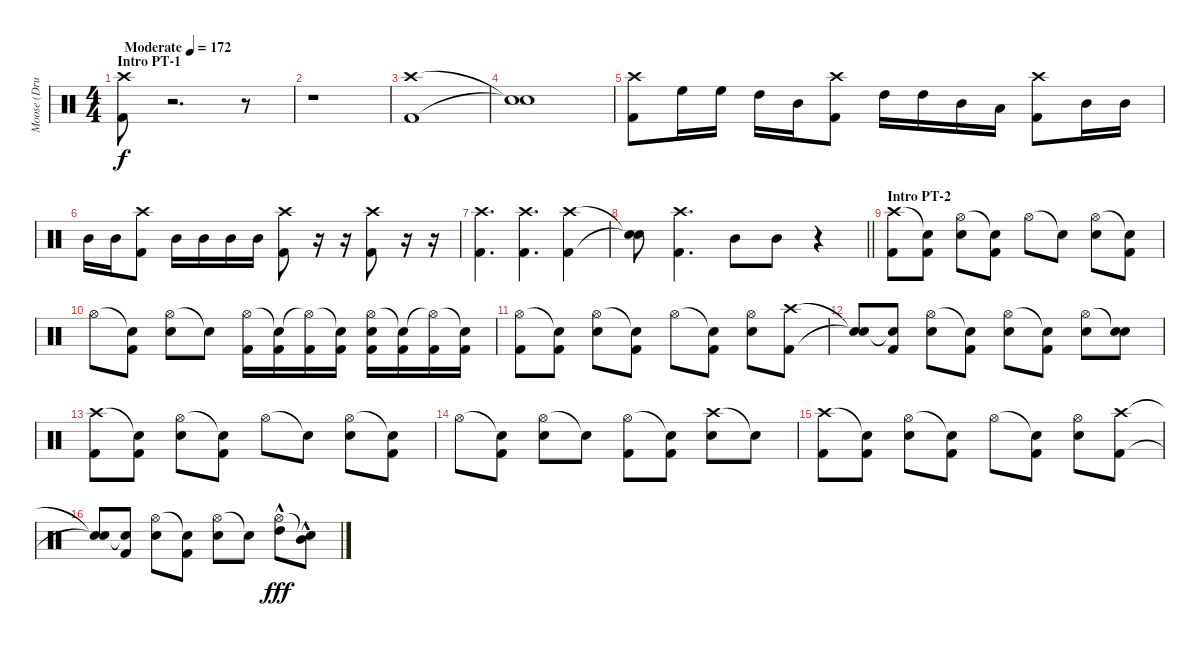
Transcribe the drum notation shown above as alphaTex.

\track ("Moose (Drums)" "Moose (Dru") {instrument percussion}
\staff {score}
\articulation defaults
\ts (4 4)
\section ("" "Intro PT-1")
\tempo (172 "Moderate")
\clef neutral
\ks c
("Crash high (hit)" "Kick (hit) 2").8{dy f} r.2{d} r.8 |
r.1 |
("Crash high (hit)" "Kick (hit) 2").1 |
("Snare (hit)"{t} "Snare (hit)"{t}).1 |
("Crash high (hit)" "Kick (hit) 2").8 "High Floor Tom (hit)".16 "High Floor Tom (hit)".16 "High Tom (hit)".16 "Mid Tom (hit)".16 ("Crash high (hit)" "Kick (hit) 2").8 "High Tom (hit)".16 "High Tom (hit)".16 "Mid Tom (hit)".16 "Low Tom (hit)".16 ("Crash high (hit)" "Kick (hit) 2").8 "Mid Tom (hit)".16 "Mid Tom (hit)".16 |
"Mid Tom (hit)".16 "Mid Tom (hit)".16 ("Crash high (hit)" "Kick (hit) 2").8 "Mid Tom (hit)".16 "Mid Tom (hit)".16 "Mid Tom (hit)".16 "Mid Tom (hit)".16 ("Crash high (hit)" "Kick (hit) 2").8 r.16 r.16 ("Crash high (hit)" "Kick (hit) 2").8 r.16 r.16 |
("Crash high (hit)" "Kick (hit) 2").4{d} ("Crash high (hit)" "Kick (hit) 2").4{d} ("Crash high (hit)" "Kick (hit) 2").4 |
\barLineRight lightlight
("Snare (hit)"{t} "Snare (hit)"{t}).8 ("Crash high (hit)" "Kick (hit) 2").4{d} "Mid Tom (hit)".8 "Mid Tom (hit)".8 r.4 |
\section ("" "Intro PT-2")
("Crash high (hit)" "Kick (hit) 2").8 ("Snare (hit)"{t} "Kick (hit) 2").8 ("Hi-Hat (open)" "Electric Snare (hit)").8 ("Snare (hit)"{t} "Kick (hit) 2").8 "Hi-Hat (open)".8 "Snare (hit)"{t}.8 ("Hi-Hat (open)" "Electric Snare (hit)").8 ("Snare (hit)"{t} "Kick (hit) 2").8 |
"Hi-Hat (open)".8 ("Snare (hit)"{t} "Kick (hit) 2").8 ("Hi-Hat (open)" "Electric Snare (hit)").8 "Snare (hit)"{t}.8 ("Hi-Hat (open)" "Kick (hit) 2").16 ("Snare (hit)"{t} "Kick (hit) 2").16 ("Hi-Hat (open)"{t} "Kick (hit) 2").16 ("Snare (hit)"{t} "Kick (hit) 2").16 ("Hi-Hat (open)" "Electric Snare (hit)" "Kick (hit) 2").16 ("Snare (hit)"{t} "Kick (hit) 2").16 ("Hi-Hat (open)"{t} "Kick (hit) 2").16 ("Snare (hit)"{t} "Kick (hit) 2").16 |
("Hi-Hat (open)" "Kick (hit) 2").8 ("Snare (hit)"{t} "Kick (hit) 2").8 ("Hi-Hat (open)" "Electric Snare (hit)").8 ("Snare (hit)"{t} "Kick (hit) 2").8 "Hi-Hat (open)".8 ("Snare (hit)"{t} "Kick (hit) 2").8 ("Hi-Hat (open)" "Electric Snare (hit)").8 ("Crash high (hit)" "Kick (hit) 2").8 |
("Snare (hit)"{t} "Snare (hit)"{t}).8 ("Snare (hit)"{t} "Kick (hit) 2").8 ("Hi-Hat (open)" "Electric Snare (hit)").8 ("Snare (hit)"{t} "Kick (hit) 2").8 ("Hi-Hat (open)" "Electric Snare (hit)").8 ("Snare (hit)"{t} "Kick (hit) 2").8 ("Hi-Hat (open)" "Electric Snare (hit)").8 ("Snare (hit)"{t} "Electric Snare (hit)").8 |
("Crash high (hit)" "Kick (hit) 2").8 ("Snare (hit)"{t} "Kick (hit) 2").8 ("Hi-Hat (open)" "Electric Snare (hit)").8 ("Snare (hit)"{t} "Kick (hit) 2").8 "Hi-Hat (open)".8 "Snare (hit)"{t}.8 ("Hi-Hat (open)" "Electric Snare (hit)").8 ("Snare (hit)"{t} "Kick (hit) 2").8 |
"Hi-Hat (open)".8 ("Snare (hit)"{t} "Kick (hit) 2").8 ("Hi-Hat (open)" "Electric Snare (hit)").8 "Snare (hit)"{t}.8 ("Hi-Hat (open)" "Kick (hit) 2").8 ("Snare (hit)"{t} "Kick (hit) 2").8 ("Crash high (hit)" "Electric Snare (hit)").8 "Snare (hit)"{t}.8 |
("Crash high (hit)" "Kick (hit) 2").8 ("Snare (hit)"{t} "Kick (hit) 2").8 ("Hi-Hat (open)" "Electric Snare (hit)").8 ("Snare (hit)"{t} "Kick (hit) 2").8 "Hi-Hat (open)".8 ("Snare (hit)"{t} "Kick (hit) 2").8 ("Hi-Hat (open)" "Electric Snare (hit)").8 ("Crash high (hit)" "Kick (hit) 2").8 |
("Snare (hit)"{t} "Snare (hit)"{t}).8 ("Snare (hit)"{t} "Kick (hit) 2").8 ("Hi-Hat (open)" "Electric Snare (hit)").8 ("Snare (hit)"{t} "Kick (hit) 2").8 ("Hi-Hat (open)" "Electric Snare (hit)").8 "Snare (hit)"{t}.8 ("Hi-Hat (open)" "High Tom (hit)"{hac}).8{dy fff} ("Snare (hit)"{t} "Mid Tom (hit)"{hac}).8
